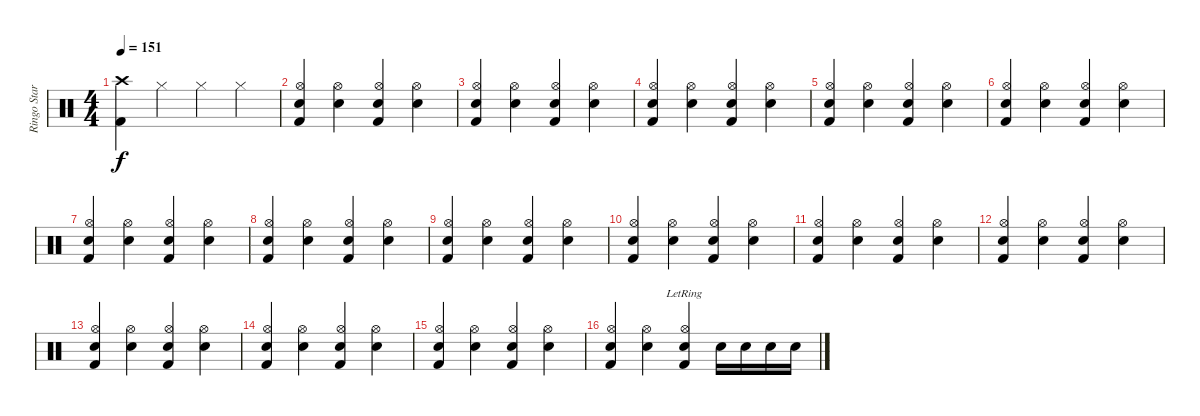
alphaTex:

\track ("Ringo Star" "Ringo Star") {instrument percussion}
\staff {score}
\articulation defaults
\ts (4 4)
\tempo 151
\clef neutral
\ks c
("Crash high (hit)" "Kick (hit) 2").4{dy f} "Hi-Hat (closed)".4 "Hi-Hat (closed)".4 "Hi-Hat (closed)".4 |
("Hi-Hat (open)" "Snare (hit) 2" "Kick (hit) 2").4 ("Hi-Hat (open)" "Snare (hit) 2").4 ("Hi-Hat (open)" "Snare (hit) 2" "Kick (hit) 2").4 ("Hi-Hat (open)" "Snare (hit) 2").4 |
("Hi-Hat (open)" "Snare (hit) 2" "Kick (hit) 2").4 ("Hi-Hat (open)" "Snare (hit) 2").4 ("Hi-Hat (open)" "Snare (hit) 2" "Kick (hit) 2").4 ("Hi-Hat (open)" "Snare (hit) 2").4 |
("Hi-Hat (open)" "Snare (hit) 2" "Kick (hit) 2").4 ("Hi-Hat (open)" "Snare (hit) 2").4 ("Hi-Hat (open)" "Snare (hit) 2" "Kick (hit) 2").4 ("Hi-Hat (open)" "Snare (hit) 2").4 |
("Hi-Hat (open)" "Snare (hit) 2" "Kick (hit) 2").4 ("Hi-Hat (open)" "Snare (hit) 2").4 ("Hi-Hat (open)" "Snare (hit) 2" "Kick (hit) 2").4 ("Hi-Hat (open)" "Snare (hit) 2").4 |
("Hi-Hat (open)" "Snare (hit) 2" "Kick (hit) 2").4 ("Hi-Hat (open)" "Snare (hit) 2").4 ("Hi-Hat (open)" "Snare (hit) 2" "Kick (hit) 2").4 ("Hi-Hat (open)" "Snare (hit) 2").4 |
("Hi-Hat (open)" "Snare (hit) 2" "Kick (hit) 2").4 ("Hi-Hat (open)" "Snare (hit) 2").4 ("Hi-Hat (open)" "Snare (hit) 2" "Kick (hit) 2").4 ("Hi-Hat (open)" "Snare (hit) 2").4 |
("Hi-Hat (open)" "Snare (hit) 2" "Kick (hit) 2").4 ("Hi-Hat (open)" "Snare (hit) 2").4 ("Hi-Hat (open)" "Snare (hit) 2" "Kick (hit) 2").4 ("Hi-Hat (open)" "Snare (hit) 2").4 |
("Hi-Hat (open)" "Snare (hit) 2" "Kick (hit) 2").4 ("Hi-Hat (open)" "Snare (hit) 2").4 ("Hi-Hat (open)" "Snare (hit) 2" "Kick (hit) 2").4 ("Hi-Hat (open)" "Snare (hit) 2").4 |
("Hi-Hat (open)" "Snare (hit) 2" "Kick (hit) 2").4 ("Hi-Hat (open)" "Snare (hit) 2").4 ("Hi-Hat (open)" "Snare (hit) 2" "Kick (hit) 2").4 ("Hi-Hat (open)" "Snare (hit) 2").4 |
("Hi-Hat (open)" "Snare (hit) 2" "Kick (hit) 2").4 ("Hi-Hat (open)" "Snare (hit) 2").4 ("Hi-Hat (open)" "Snare (hit) 2" "Kick (hit) 2").4 ("Hi-Hat (open)" "Snare (hit) 2").4 |
("Hi-Hat (open)" "Snare (hit) 2" "Kick (hit) 2").4 ("Hi-Hat (open)" "Snare (hit) 2").4 ("Hi-Hat (open)" "Snare (hit) 2" "Kick (hit) 2").4 ("Hi-Hat (open)" "Snare (hit) 2").4 |
("Hi-Hat (open)" "Snare (hit) 2" "Kick (hit) 2").4 ("Hi-Hat (open)" "Snare (hit) 2").4 ("Hi-Hat (open)" "Snare (hit) 2" "Kick (hit) 2").4 ("Hi-Hat (open)" "Snare (hit) 2").4 |
("Hi-Hat (open)" "Snare (hit) 2" "Kick (hit) 2").4 ("Hi-Hat (open)" "Snare (hit) 2").4 ("Hi-Hat (open)" "Snare (hit) 2" "Kick (hit) 2").4 ("Hi-Hat (open)" "Snare (hit) 2").4 |
("Hi-Hat (open)" "Snare (hit) 2" "Kick (hit) 2").4 ("Hi-Hat (open)" "Snare (hit) 2").4 ("Hi-Hat (open)" "Snare (hit) 2" "Kick (hit) 2").4 ("Hi-Hat (open)" "Snare (hit) 2").4 |
("Hi-Hat (open)" "Snare (hit) 2" "Kick (hit) 2").4 ("Hi-Hat (open)" "Snare (hit) 2").4 ("Hi-Hat (open)"{lr} "Snare (hit) 2" "Kick (hit) 2").4 "Snare (hit) 2".16 "Snare (hit) 2".16 "Snare (hit) 2".16 "Snare (hit) 2".16
